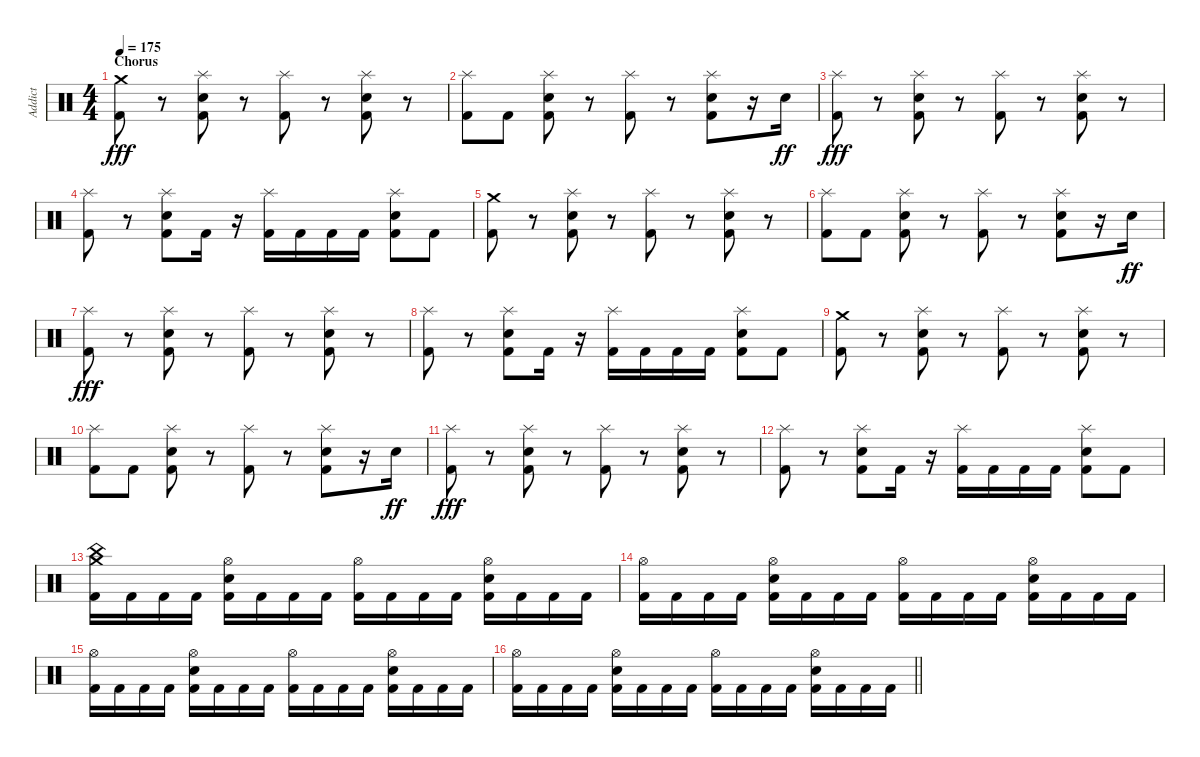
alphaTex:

\track ("Addict" "Addict") {instrument percussion}
\staff {score}
\articulation defaults
\ts (4 4)
\section ("" "Chorus")
\tempo 175
\clef neutral
\ks c
("Kick (hit) 2" "Crash medium (hit)").8{dy fff} r.8 ("Kick (hit) 2" "Snare (hit) 2" "Splash (hit)").8 r.8 ("Kick (hit) 2" "Splash (hit)").8 r.8 ("Kick (hit) 2" "Snare (hit) 2" "Splash (hit)").8 r.8 |
("Kick (hit) 2" "Splash (hit)").8 "Kick (hit) 2".8 ("Kick (hit) 2" "Snare (hit) 2" "Splash (hit)").8 r.8 ("Kick (hit) 2" "Splash (hit)").8 r.8 ("Kick (hit) 2" "Snare (hit) 2" "Splash (hit)").8 r.16 "Snare (hit) 2".16{dy ff} |
("Kick (hit) 2" "Splash (hit)").8{dy fff} r.8 ("Kick (hit) 2" "Snare (hit) 2" "Splash (hit)").8 r.8 ("Kick (hit) 2" "Splash (hit)").8 r.8 ("Kick (hit) 2" "Snare (hit) 2" "Splash (hit)").8 r.8 |
("Kick (hit) 2" "Splash (hit)").8 r.8 ("Kick (hit) 2" "Snare (hit) 2" "Splash (hit)").8 "Kick (hit) 2".16 r.16 ("Kick (hit) 2" "Splash (hit)").16 "Kick (hit) 2".16 "Kick (hit) 2".16 "Kick (hit) 2".16 ("Kick (hit) 2" "Snare (hit) 2" "Splash (hit)").8 "Kick (hit) 2".8 |
("Kick (hit) 2" "Crash medium (hit)").8 r.8 ("Kick (hit) 2" "Snare (hit) 2" "Splash (hit)").8 r.8 ("Kick (hit) 2" "Splash (hit)").8 r.8 ("Kick (hit) 2" "Snare (hit) 2" "Splash (hit)").8 r.8 |
("Kick (hit) 2" "Splash (hit)").8 "Kick (hit) 2".8 ("Kick (hit) 2" "Snare (hit) 2" "Splash (hit)").8 r.8 ("Kick (hit) 2" "Splash (hit)").8 r.8 ("Kick (hit) 2" "Snare (hit) 2" "Splash (hit)").8 r.16 "Snare (hit) 2".16{dy ff} |
("Kick (hit) 2" "Splash (hit)").8{dy fff} r.8 ("Kick (hit) 2" "Snare (hit) 2" "Splash (hit)").8 r.8 ("Kick (hit) 2" "Splash (hit)").8 r.8 ("Kick (hit) 2" "Snare (hit) 2" "Splash (hit)").8 r.8 |
("Kick (hit) 2" "Splash (hit)").8 r.8 ("Kick (hit) 2" "Snare (hit) 2" "Splash (hit)").8 "Kick (hit) 2".16 r.16 ("Kick (hit) 2" "Splash (hit)").16 "Kick (hit) 2".16 "Kick (hit) 2".16 "Kick (hit) 2".16 ("Kick (hit) 2" "Snare (hit) 2" "Splash (hit)").8 "Kick (hit) 2".8 |
("Kick (hit) 2" "Crash medium (hit)").8 r.8 ("Kick (hit) 2" "Snare (hit) 2" "Splash (hit)").8 r.8 ("Kick (hit) 2" "Splash (hit)").8 r.8 ("Kick (hit) 2" "Snare (hit) 2" "Splash (hit)").8 r.8 |
("Kick (hit) 2" "Splash (hit)").8 "Kick (hit) 2".8 ("Kick (hit) 2" "Snare (hit) 2" "Splash (hit)").8 r.8 ("Kick (hit) 2" "Splash (hit)").8 r.8 ("Kick (hit) 2" "Snare (hit) 2" "Splash (hit)").8 r.16 "Snare (hit) 2".16{dy ff} |
("Kick (hit) 2" "Splash (hit)").8{dy fff} r.8 ("Kick (hit) 2" "Snare (hit) 2" "Splash (hit)").8 r.8 ("Kick (hit) 2" "Splash (hit)").8 r.8 ("Kick (hit) 2" "Snare (hit) 2" "Splash (hit)").8 r.8 |
("Kick (hit) 2" "Splash (hit)").8 r.8 ("Kick (hit) 2" "Snare (hit) 2" "Splash (hit)").8 "Kick (hit) 2".16 r.16 ("Kick (hit) 2" "Splash (hit)").16 "Kick (hit) 2".16 "Kick (hit) 2".16 "Kick (hit) 2".16 ("Kick (hit) 2" "Snare (hit) 2" "Splash (hit)").8 "Kick (hit) 2".8 |
("Kick (hit) 2" "Crash medium (hit)" "China (hit)").16 "Kick (hit) 2".16 "Kick (hit) 2".16 "Kick (hit) 2".16 ("Kick (hit) 2" "Snare (hit) 2" "Hi-Hat (open)").16 "Kick (hit) 2".16 "Kick (hit) 2".16 "Kick (hit) 2".16 ("Kick (hit) 2" "Hi-Hat (open)").16 "Kick (hit) 2".16 "Kick (hit) 2".16 "Kick (hit) 2".16 ("Kick (hit) 2" "Snare (hit) 2" "Hi-Hat (open)").16 "Kick (hit) 2".16 "Kick (hit) 2".16 "Kick (hit) 2".16 |
("Kick (hit) 2" "Hi-Hat (open)").16 "Kick (hit) 2".16 "Kick (hit) 2".16 "Kick (hit) 2".16 ("Kick (hit) 2" "Snare (hit) 2" "Hi-Hat (open)").16 "Kick (hit) 2".16 "Kick (hit) 2".16 "Kick (hit) 2".16 ("Kick (hit) 2" "Hi-Hat (open)").16 "Kick (hit) 2".16 "Kick (hit) 2".16 "Kick (hit) 2".16 ("Kick (hit) 2" "Snare (hit) 2" "Hi-Hat (open)").16 "Kick (hit) 2".16 "Kick (hit) 2".16 "Kick (hit) 2".16 |
("Kick (hit) 2" "Hi-Hat (open)").16 "Kick (hit) 2".16 "Kick (hit) 2".16 "Kick (hit) 2".16 ("Kick (hit) 2" "Snare (hit) 2" "Hi-Hat (open)").16 "Kick (hit) 2".16 "Kick (hit) 2".16 "Kick (hit) 2".16 ("Kick (hit) 2" "Hi-Hat (open)").16 "Kick (hit) 2".16 "Kick (hit) 2".16 "Kick (hit) 2".16 ("Kick (hit) 2" "Snare (hit) 2" "Hi-Hat (open)").16 "Kick (hit) 2".16 "Kick (hit) 2".16 "Kick (hit) 2".16 |
\barLineRight lightlight
("Kick (hit) 2" "Hi-Hat (open)").16 "Kick (hit) 2".16 "Kick (hit) 2".16 "Kick (hit) 2".16 ("Kick (hit) 2" "Snare (hit) 2" "Hi-Hat (open)").16 "Kick (hit) 2".16 "Kick (hit) 2".16 "Kick (hit) 2".16 ("Kick (hit) 2" "Hi-Hat (open)").16 "Kick (hit) 2".16 "Kick (hit) 2".16 "Kick (hit) 2".16 ("Kick (hit) 2" "Snare (hit) 2" "Hi-Hat (open)").16 "Kick (hit) 2".16 "Kick (hit) 2".16 "Kick (hit) 2".16
